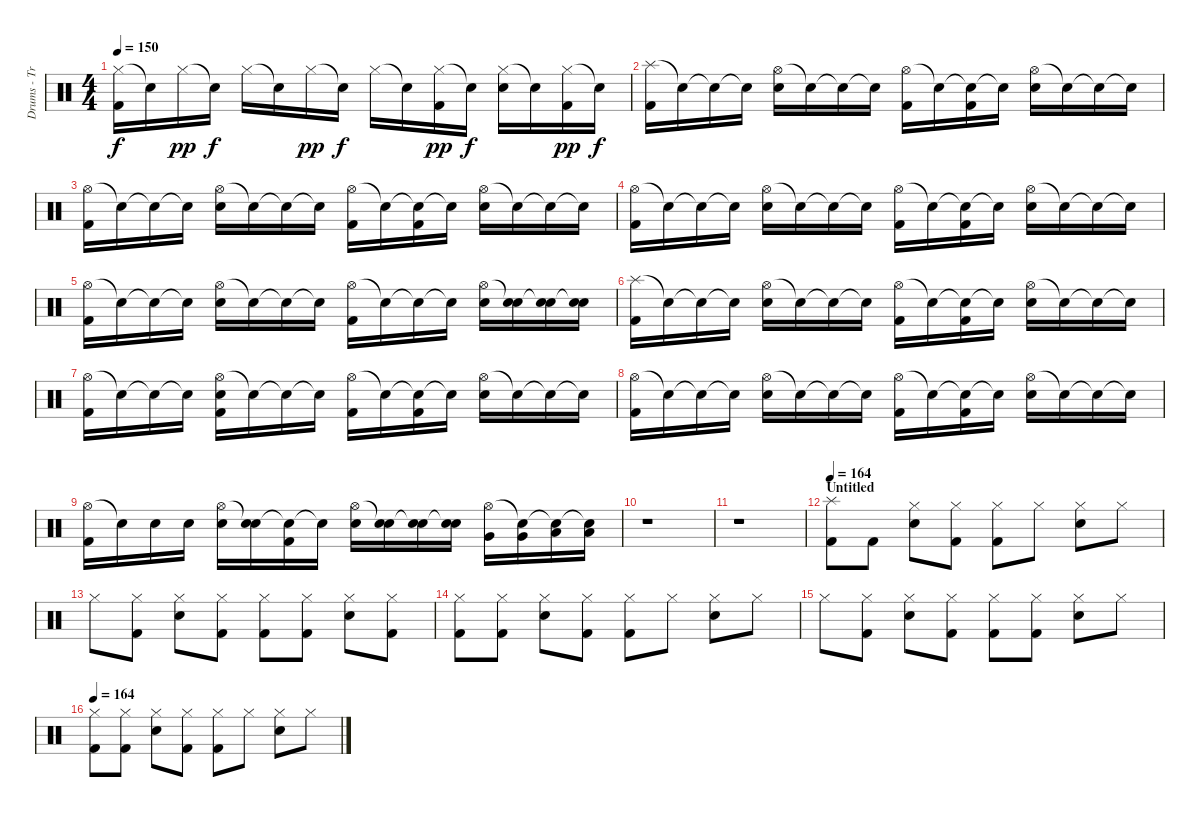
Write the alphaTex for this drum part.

\track ("Drums - Travis Barker" "Drums - Tr") {instrument percussion}
\staff {score}
\articulation defaults
\ts (4 4)
\tempo 150
\clef neutral
\ks c
("Hi-Hat (closed)" "Kick (hit) 2").16{dy f} "Snare (hit)"{t}.16 "Hi-Hat (closed)".16{dy pp} "Snare (hit)"{t}.16{dy f} "Hi-Hat (closed)".16 "Snare (hit)"{t}.16 "Hi-Hat (closed)".16{dy pp} "Snare (hit)"{t}.16{dy f} "Hi-Hat (closed)".16 "Snare (hit)"{t}.16 ("Hi-Hat (closed)" "Kick (hit) 2").16{dy pp} "Snare (hit)"{t}.16{dy f} ("Hi-Hat (closed)" "Electric Snare (hit)").16 "Snare (hit)"{t}.16 ("Hi-Hat (closed)" "Kick (hit) 2").16{dy pp} "Snare (hit)"{t}.16{dy f} |
("Splash (hit)" "Kick (hit) 2").16 "Snare (hit)"{t}.16 "Snare (hit)"{t}.16 "Snare (hit)"{t}.16 ("Hi-Hat (open)" "Electric Snare (hit)").16 "Snare (hit)"{t}.16 "Snare (hit)"{t}.16 "Snare (hit)"{t}.16 ("Hi-Hat (open)" "Kick (hit) 2").16 "Snare (hit)"{t}.16 ("Snare (hit)"{t} "Kick (hit) 2").16 "Snare (hit)"{t}.16 ("Hi-Hat (open)" "Electric Snare (hit)").16 "Snare (hit)"{t}.16 "Snare (hit)"{t}.16 "Snare (hit)"{t}.16 |
("Hi-Hat (open)" "Kick (hit) 2").16 "Snare (hit)"{t}.16 "Snare (hit)"{t}.16 "Snare (hit)"{t}.16 ("Hi-Hat (open)" "Electric Snare (hit)").16 "Snare (hit)"{t}.16 "Snare (hit)"{t}.16 "Snare (hit)"{t}.16 ("Hi-Hat (open)" "Kick (hit) 2").16 "Snare (hit)"{t}.16 ("Snare (hit)"{t} "Kick (hit) 2").16 "Snare (hit)"{t}.16 ("Hi-Hat (open)" "Electric Snare (hit)").16 "Snare (hit)"{t}.16 "Snare (hit)"{t}.16 "Snare (hit)"{t}.16 |
("Hi-Hat (open)" "Kick (hit) 2").16 "Snare (hit)"{t}.16 "Snare (hit)"{t}.16 "Snare (hit)"{t}.16 ("Hi-Hat (open)" "Electric Snare (hit)").16 "Snare (hit)"{t}.16 "Snare (hit)"{t}.16 "Snare (hit)"{t}.16 ("Hi-Hat (open)" "Kick (hit) 2").16 "Snare (hit)"{t}.16 ("Snare (hit)"{t} "Kick (hit) 2").16 "Snare (hit)"{t}.16 ("Hi-Hat (open)" "Electric Snare (hit)").16 "Snare (hit)"{t}.16 "Snare (hit)"{t}.16 "Snare (hit)"{t}.16 |
("Hi-Hat (open)" "Kick (hit) 2").16 "Snare (hit)"{t}.16 "Snare (hit)"{t}.16 "Snare (hit)"{t}.16 ("Hi-Hat (open)" "Electric Snare (hit)").16 "Snare (hit)"{t}.16 "Snare (hit)"{t}.16 "Snare (hit)"{t}.16 ("Hi-Hat (open)" "Kick (hit) 2").16 "Snare (hit)"{t}.16 "Snare (hit)"{t}.16 "Snare (hit)"{t}.16 ("Hi-Hat (open)" "Electric Snare (hit)").16 ("Snare (hit)"{t} "Electric Snare (hit)").16 ("Snare (hit)"{t} "Electric Snare (hit)").16 ("Snare (hit)"{t} "Electric Snare (hit)").16 |
("Splash (hit)" "Kick (hit) 2").16 "Snare (hit)"{t}.16 "Snare (hit)"{t}.16 "Snare (hit)"{t}.16 ("Hi-Hat (open)" "Electric Snare (hit)").16 "Snare (hit)"{t}.16 "Snare (hit)"{t}.16 "Snare (hit)"{t}.16 ("Hi-Hat (open)" "Kick (hit) 2").16 "Snare (hit)"{t}.16 ("Snare (hit)"{t} "Kick (hit) 2").16 "Snare (hit)"{t}.16 ("Hi-Hat (open)" "Electric Snare (hit)").16 "Snare (hit)"{t}.16 "Snare (hit)"{t}.16 "Snare (hit)"{t}.16 |
("Hi-Hat (open)" "Kick (hit) 2").16 "Snare (hit)"{t}.16 "Snare (hit)"{t}.16 "Snare (hit)"{t}.16 ("Hi-Hat (open)" "Electric Snare (hit)" "Kick (hit) 2").16 "Snare (hit)"{t}.16 "Snare (hit)"{t}.16 "Snare (hit)"{t}.16 ("Hi-Hat (open)" "Kick (hit) 2").16 "Snare (hit)"{t}.16 ("Snare (hit)"{t} "Kick (hit) 2").16 "Snare (hit)"{t}.16 ("Hi-Hat (open)" "Electric Snare (hit)").16 "Snare (hit)"{t}.16 "Snare (hit)"{t}.16 "Snare (hit)"{t}.16 |
("Hi-Hat (open)" "Kick (hit) 2").16 "Snare (hit)"{t}.16 "Snare (hit)"{t}.16 "Snare (hit)"{t}.16 ("Hi-Hat (open)" "Electric Snare (hit)").16 "Snare (hit)"{t}.16 "Snare (hit)"{t}.16 "Snare (hit)"{t}.16 ("Hi-Hat (open)" "Kick (hit) 2").16 "Snare (hit)"{t}.16 ("Snare (hit)"{t} "Kick (hit) 2").16 "Snare (hit)"{t}.16 ("Hi-Hat (open)" "Electric Snare (hit)").16 "Snare (hit)"{t}.16 "Snare (hit)"{t}.16 "Snare (hit)"{t}.16 |
("Hi-Hat (open)" "Kick (hit) 2").16 "Snare (hit)"{t}.16 "Electric Snare (hit)".16 "Electric Snare (hit)".16 ("Hi-Hat (open)" "Electric Snare (hit)").16 ("Snare (hit)"{t} "Electric Snare (hit)").16 ("Snare (hit)"{t} "Kick (hit) 2").16 "Snare (hit)"{t}.16 ("Hi-Hat (open)" "Electric Snare (hit)").16 ("Snare (hit)"{t} "Electric Snare (hit)").16 ("Snare (hit)"{t} "Electric Snare (hit)").16 ("Snare (hit)"{t} "Electric Snare (hit)").16 ("Hi-Hat (open)" "Very Low Tom (hit)").16 ("Snare (hit)"{t} "Very Low Tom (hit)").16 ("Snare (hit)"{t} "Low Floor Tom (hit)").16 ("Snare (hit)"{t} "Low Floor Tom (hit)").16 |
r.1 |
r.1 |
\section ("" "Untitled")
\tempo 164
("Splash (hit)" "Kick (hit) 2").8 "Kick (hit) 2".8 ("Hi-Hat (closed)" "Electric Snare (hit)").8 ("Hi-Hat (closed)" "Kick (hit) 2").8 ("Hi-Hat (closed)" "Kick (hit) 2").8 "Hi-Hat (closed)".8 ("Hi-Hat (closed)" "Electric Snare (hit)").8 "Hi-Hat (closed)".8 |
"Hi-Hat (closed)".8 ("Hi-Hat (closed)" "Kick (hit) 2").8 ("Hi-Hat (closed)" "Electric Snare (hit)").8 ("Hi-Hat (closed)" "Kick (hit) 2").8 ("Hi-Hat (closed)" "Kick (hit) 2").8 ("Hi-Hat (closed)" "Kick (hit) 2").8 ("Hi-Hat (closed)" "Electric Snare (hit)").8 ("Hi-Hat (closed)" "Kick (hit) 2").8 |
("Hi-Hat (closed)" "Kick (hit) 2").8 ("Hi-Hat (closed)" "Kick (hit) 2").8 ("Hi-Hat (closed)" "Electric Snare (hit)").8 ("Hi-Hat (closed)" "Kick (hit) 2").8 ("Hi-Hat (closed)" "Kick (hit) 2").8 "Hi-Hat (closed)".8 ("Hi-Hat (closed)" "Electric Snare (hit)").8 "Hi-Hat (closed)".8 |
"Hi-Hat (closed)".8 ("Hi-Hat (closed)" "Kick (hit) 2").8 ("Hi-Hat (closed)" "Electric Snare (hit)").8 ("Hi-Hat (closed)" "Kick (hit) 2").8 ("Hi-Hat (closed)" "Kick (hit) 2").8 ("Hi-Hat (closed)" "Kick (hit) 2").8 ("Hi-Hat (closed)" "Electric Snare (hit)").8 "Hi-Hat (closed)".8 |
\tempo 164
("Hi-Hat (closed)" "Kick (hit) 2").8 ("Hi-Hat (closed)" "Kick (hit) 2").8 ("Hi-Hat (closed)" "Electric Snare (hit)").8 ("Hi-Hat (closed)" "Kick (hit) 2").8 ("Hi-Hat (closed)" "Kick (hit) 2").8 "Hi-Hat (closed)".8 ("Hi-Hat (closed)" "Electric Snare (hit)").8 "Hi-Hat (closed)".8
